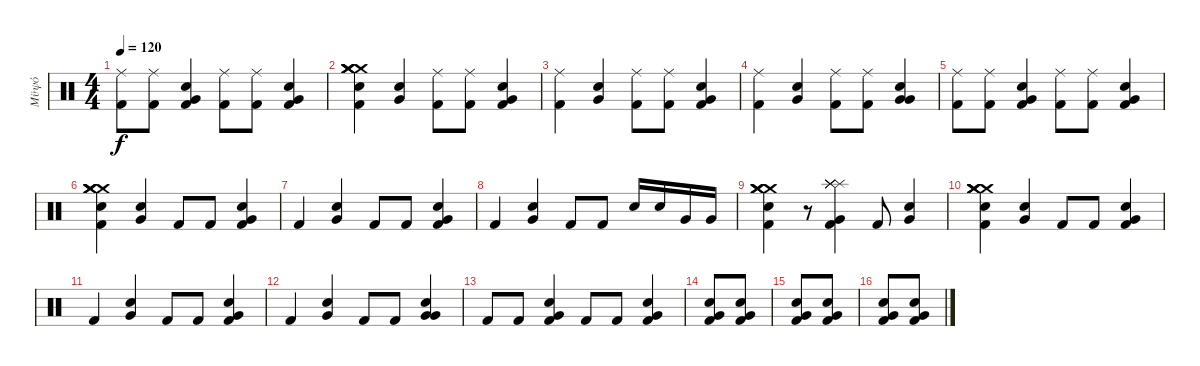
\track ("Μϋψό" "Μϋψό") {instrument percussion}
\staff {score}
\articulation defaults
\ts (4 4)
\tempo 120
\clef neutral
\ks c
("Kick (hit) 2" "Ride (middle)").8{dy f} ("Kick (hit) 2" "Ride (middle)").8 ("Electric Snare (hit)" "Kick (hit) 2" "Very Low Tom (hit)").4 ("Kick (hit) 2" "Ride (middle)").8 ("Kick (hit) 2" "Ride (middle)").8 ("Electric Snare (hit)" "Kick (hit) 2" "Very Low Tom (hit)").4 |
("Kick (hit) 2" "Electric Snare (hit)" "Crash medium (hit)" "Crash medium (hit)" "Crash medium (hit)" "Crash medium (hit)").4 ("Electric Snare (hit)" "Very Low Tom (hit)").4 ("Kick (hit) 2" "Ride (middle)").8 ("Kick (hit) 2" "Ride (middle)").8 ("Electric Snare (hit)" "Kick (hit) 2" "Very Low Tom (hit)").4 |
("Kick (hit) 2" "Ride (middle)").4 ("Electric Snare (hit)" "Very Low Tom (hit)").4 ("Kick (hit) 2" "Ride (middle)").8 ("Kick (hit) 2" "Ride (middle)").8 ("Electric Snare (hit)" "Kick (hit) 2" "Very Low Tom (hit)").4 |
("Kick (hit) 2" "Ride (middle)").4 ("Electric Snare (hit)" "Very Low Tom (hit)").4 ("Kick (hit) 2" "Ride (middle)").8 ("Kick (hit) 2" "Ride (middle)").8 ("Electric Snare (hit)" "Very Low Tom (hit)" "Very Low Tom (hit)").4 |
("Kick (hit) 2" "Ride (middle)").8 ("Kick (hit) 2" "Ride (middle)").8 ("Electric Snare (hit)" "Kick (hit) 2" "Very Low Tom (hit)").4 ("Kick (hit) 2" "Ride (middle)").8 ("Kick (hit) 2" "Ride (middle)").8 ("Electric Snare (hit)" "Kick (hit) 2" "Very Low Tom (hit)").4 |
("Kick (hit) 2" "Electric Snare (hit)" "Crash medium (hit)" "Crash medium (hit)" "Crash medium (hit)" "Crash medium (hit)").4 ("Electric Snare (hit)" "Very Low Tom (hit)").4 "Kick (hit) 2".8 "Kick (hit) 2".8 ("Electric Snare (hit)" "Kick (hit) 2" "Very Low Tom (hit)").4 |
"Kick (hit) 2".4 ("Electric Snare (hit)" "Very Low Tom (hit)").4 "Kick (hit) 2".8 "Kick (hit) 2".8 ("Electric Snare (hit)" "Kick (hit) 2" "Very Low Tom (hit)").4 |
"Kick (hit) 2".4 ("Electric Snare (hit)" "Very Low Tom (hit)").4 "Kick (hit) 2".8 "Kick (hit) 2".8 "Electric Snare (hit)".16 "Electric Snare (hit)".16 "Very Low Tom (hit)".16 "Very Low Tom (hit)".16 |
("Kick (hit) 2" "Electric Snare (hit)" "Crash medium (hit)" "Crash medium (hit)" "Crash medium (hit)" "Crash medium (hit)").4 r.8 ("Kick (hit) 2" "Very Low Tom (hit)" "Splash (hit)" "Splash (hit)" "Splash (hit)" "Splash (hit)").4 "Kick (hit) 2".8 ("Electric Snare (hit)" "Very Low Tom (hit)").4 |
("Kick (hit) 2" "Electric Snare (hit)" "Crash medium (hit)" "Crash medium (hit)" "Crash medium (hit)" "Crash medium (hit)").4 ("Electric Snare (hit)" "Very Low Tom (hit)").4 "Kick (hit) 2".8 "Kick (hit) 2".8 ("Electric Snare (hit)" "Kick (hit) 2" "Very Low Tom (hit)").4 |
"Kick (hit) 2".4 ("Electric Snare (hit)" "Very Low Tom (hit)").4 "Kick (hit) 2".8 "Kick (hit) 2".8 ("Electric Snare (hit)" "Kick (hit) 2" "Very Low Tom (hit)").4 |
"Kick (hit) 2".4 ("Electric Snare (hit)" "Very Low Tom (hit)").4 "Kick (hit) 2".8 "Kick (hit) 2".8 ("Electric Snare (hit)" "Very Low Tom (hit)" "Very Low Tom (hit)").4 |
"Kick (hit) 2".8 "Kick (hit) 2".8 ("Electric Snare (hit)" "Kick (hit) 2" "Very Low Tom (hit)").4 "Kick (hit) 2".8 "Kick (hit) 2".8 ("Electric Snare (hit)" "Kick (hit) 2" "Very Low Tom (hit)").4 |
("Electric Snare (hit)" "Kick (hit) 2" "Very Low Tom (hit)").8 ("Electric Snare (hit)" "Kick (hit) 2" "Very Low Tom (hit)").8 |
("Electric Snare (hit)" "Kick (hit) 2" "Very Low Tom (hit)").8 ("Electric Snare (hit)" "Kick (hit) 2" "Very Low Tom (hit)").8 |
("Electric Snare (hit)" "Kick (hit) 2" "Very Low Tom (hit)").8 ("Electric Snare (hit)" "Kick (hit) 2" "Very Low Tom (hit)").8
